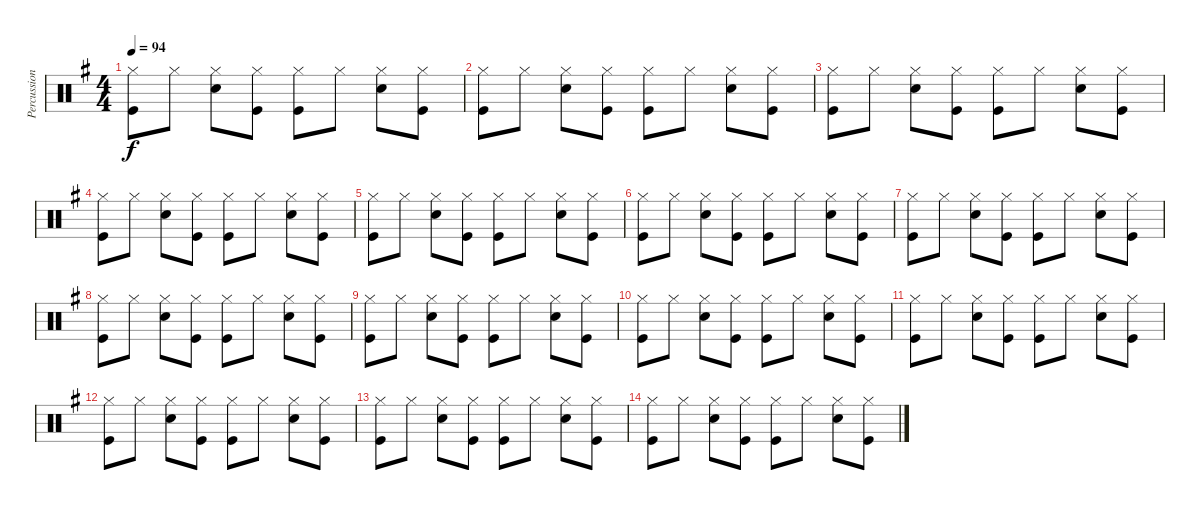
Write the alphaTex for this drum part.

\track ("Percussion" "Percussion") {instrument percussion}
\staff {score}
\articulation defaults
\ts (4 4)
\tempo 94
\clef neutral
\ks g
("Hi-Hat (closed)" "Kick (hit)").8{dy f} "Hi-Hat (closed)".8 ("Hi-Hat (closed)" "Snare (hit) 2").8 ("Hi-Hat (closed)" "Kick (hit)").8 ("Hi-Hat (closed)" "Kick (hit)").8 "Hi-Hat (closed)".8 ("Hi-Hat (closed)" "Snare (hit) 2").8 ("Hi-Hat (closed)" "Kick (hit)").8 |
("Hi-Hat (closed)" "Kick (hit)").8 "Hi-Hat (closed)".8 ("Hi-Hat (closed)" "Snare (hit) 2").8 ("Hi-Hat (closed)" "Kick (hit)").8 ("Hi-Hat (closed)" "Kick (hit)").8 "Hi-Hat (closed)".8 ("Hi-Hat (closed)" "Snare (hit) 2").8 ("Hi-Hat (closed)" "Kick (hit)").8 |
("Hi-Hat (closed)" "Kick (hit)").8 "Hi-Hat (closed)".8 ("Hi-Hat (closed)" "Snare (hit) 2").8 ("Hi-Hat (closed)" "Kick (hit)").8 ("Hi-Hat (closed)" "Kick (hit)").8 "Hi-Hat (closed)".8 ("Hi-Hat (closed)" "Snare (hit) 2").8 ("Hi-Hat (closed)" "Kick (hit)").8 |
("Hi-Hat (closed)" "Kick (hit)").8 "Hi-Hat (closed)".8 ("Hi-Hat (closed)" "Snare (hit) 2").8 ("Hi-Hat (closed)" "Kick (hit)").8 ("Hi-Hat (closed)" "Kick (hit)").8 "Hi-Hat (closed)".8 ("Hi-Hat (closed)" "Snare (hit) 2").8 ("Hi-Hat (closed)" "Kick (hit)").8 |
("Hi-Hat (closed)" "Kick (hit)").8 "Hi-Hat (closed)".8 ("Hi-Hat (closed)" "Snare (hit) 2").8 ("Hi-Hat (closed)" "Kick (hit)").8 ("Hi-Hat (closed)" "Kick (hit)").8 "Hi-Hat (closed)".8 ("Hi-Hat (closed)" "Snare (hit) 2").8 ("Hi-Hat (closed)" "Kick (hit)").8 |
("Hi-Hat (closed)" "Kick (hit)").8 "Hi-Hat (closed)".8 ("Hi-Hat (closed)" "Snare (hit) 2").8 ("Hi-Hat (closed)" "Kick (hit)").8 ("Hi-Hat (closed)" "Kick (hit)").8 "Hi-Hat (closed)".8 ("Hi-Hat (closed)" "Snare (hit) 2").8 ("Hi-Hat (closed)" "Kick (hit)").8 |
("Hi-Hat (closed)" "Kick (hit)").8 "Hi-Hat (closed)".8 ("Hi-Hat (closed)" "Snare (hit) 2").8 ("Hi-Hat (closed)" "Kick (hit)").8 ("Hi-Hat (closed)" "Kick (hit)").8 "Hi-Hat (closed)".8 ("Hi-Hat (closed)" "Snare (hit) 2").8 ("Hi-Hat (closed)" "Kick (hit)").8 |
("Hi-Hat (closed)" "Kick (hit)").8 "Hi-Hat (closed)".8 ("Hi-Hat (closed)" "Snare (hit) 2").8 ("Hi-Hat (closed)" "Kick (hit)").8 ("Hi-Hat (closed)" "Kick (hit)").8 "Hi-Hat (closed)".8 ("Hi-Hat (closed)" "Snare (hit) 2").8 ("Hi-Hat (closed)" "Kick (hit)").8 |
("Hi-Hat (closed)" "Kick (hit)").8 "Hi-Hat (closed)".8 ("Hi-Hat (closed)" "Snare (hit) 2").8 ("Hi-Hat (closed)" "Kick (hit)").8 ("Hi-Hat (closed)" "Kick (hit)").8 "Hi-Hat (closed)".8 ("Hi-Hat (closed)" "Snare (hit) 2").8 ("Hi-Hat (closed)" "Kick (hit)").8 |
("Hi-Hat (closed)" "Kick (hit)").8 "Hi-Hat (closed)".8 ("Hi-Hat (closed)" "Snare (hit) 2").8 ("Hi-Hat (closed)" "Kick (hit)").8 ("Hi-Hat (closed)" "Kick (hit)").8 "Hi-Hat (closed)".8 ("Hi-Hat (closed)" "Snare (hit) 2").8 ("Hi-Hat (closed)" "Kick (hit)").8 |
("Hi-Hat (closed)" "Kick (hit)").8 "Hi-Hat (closed)".8 ("Hi-Hat (closed)" "Snare (hit) 2").8 ("Hi-Hat (closed)" "Kick (hit)").8 ("Hi-Hat (closed)" "Kick (hit)").8 "Hi-Hat (closed)".8 ("Hi-Hat (closed)" "Snare (hit) 2").8 ("Hi-Hat (closed)" "Kick (hit)").8 |
("Hi-Hat (closed)" "Kick (hit)").8 "Hi-Hat (closed)".8 ("Hi-Hat (closed)" "Snare (hit) 2").8 ("Hi-Hat (closed)" "Kick (hit)").8 ("Hi-Hat (closed)" "Kick (hit)").8 "Hi-Hat (closed)".8 ("Hi-Hat (closed)" "Snare (hit) 2").8 ("Hi-Hat (closed)" "Kick (hit)").8 |
("Hi-Hat (closed)" "Kick (hit)").8 "Hi-Hat (closed)".8 ("Hi-Hat (closed)" "Snare (hit) 2").8 ("Hi-Hat (closed)" "Kick (hit)").8 ("Hi-Hat (closed)" "Kick (hit)").8 "Hi-Hat (closed)".8 ("Hi-Hat (closed)" "Snare (hit) 2").8 ("Hi-Hat (closed)" "Kick (hit)").8 |
("Hi-Hat (closed)" "Kick (hit)").8 "Hi-Hat (closed)".8 ("Hi-Hat (closed)" "Snare (hit) 2").8 ("Hi-Hat (closed)" "Kick (hit)").8 ("Hi-Hat (closed)" "Kick (hit)").8 "Hi-Hat (closed)".8 ("Hi-Hat (closed)" "Snare (hit) 2").8 ("Hi-Hat (closed)" "Kick (hit)").8
